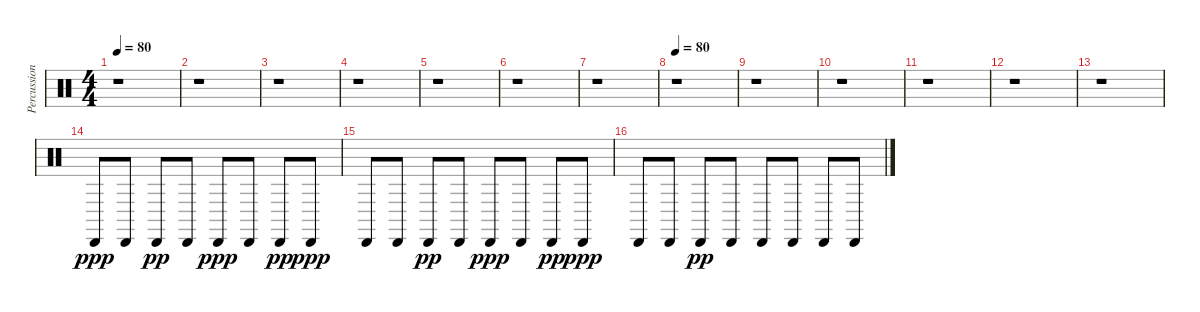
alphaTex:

\track ("Percussion" "Percussion") {instrument percussion}
\staff {score}
\articulation defaults
\ts (4 4)
\tempo 80
\clef neutral
\ks c
r.1{dy ppp} |
r.1 |
r.1 |
r.1 |
r.1 |
r.1 |
r.1 |
\tempo 80
r.1 |
r.1 |
r.1 |
r.1 |
r.1 |
r.1 |
"Cabasa (hit)".8 "Cabasa (hit)".8 "Cabasa (hit)".8{dy pp} "Cabasa (hit)".8 "Cabasa (hit)".8{dy ppp} "Cabasa (hit)".8 "Cabasa (hit)".8{dy pp} "Cabasa (hit)".8{dy ppp} |
"Cabasa (hit)".8 "Cabasa (hit)".8 "Cabasa (hit)".8{dy pp} "Cabasa (hit)".8 "Cabasa (hit)".8{dy ppp} "Cabasa (hit)".8 "Cabasa (hit)".8{dy pp} "Cabasa (hit)".8{dy ppp} |
"Cabasa (hit)".8 "Cabasa (hit)".8 "Cabasa (hit)".8{dy pp} "Cabasa (hit)".8 "Cabasa (hit)".8 "Cabasa (hit)".8 "Cabasa (hit)".8 "Cabasa (hit)".8
